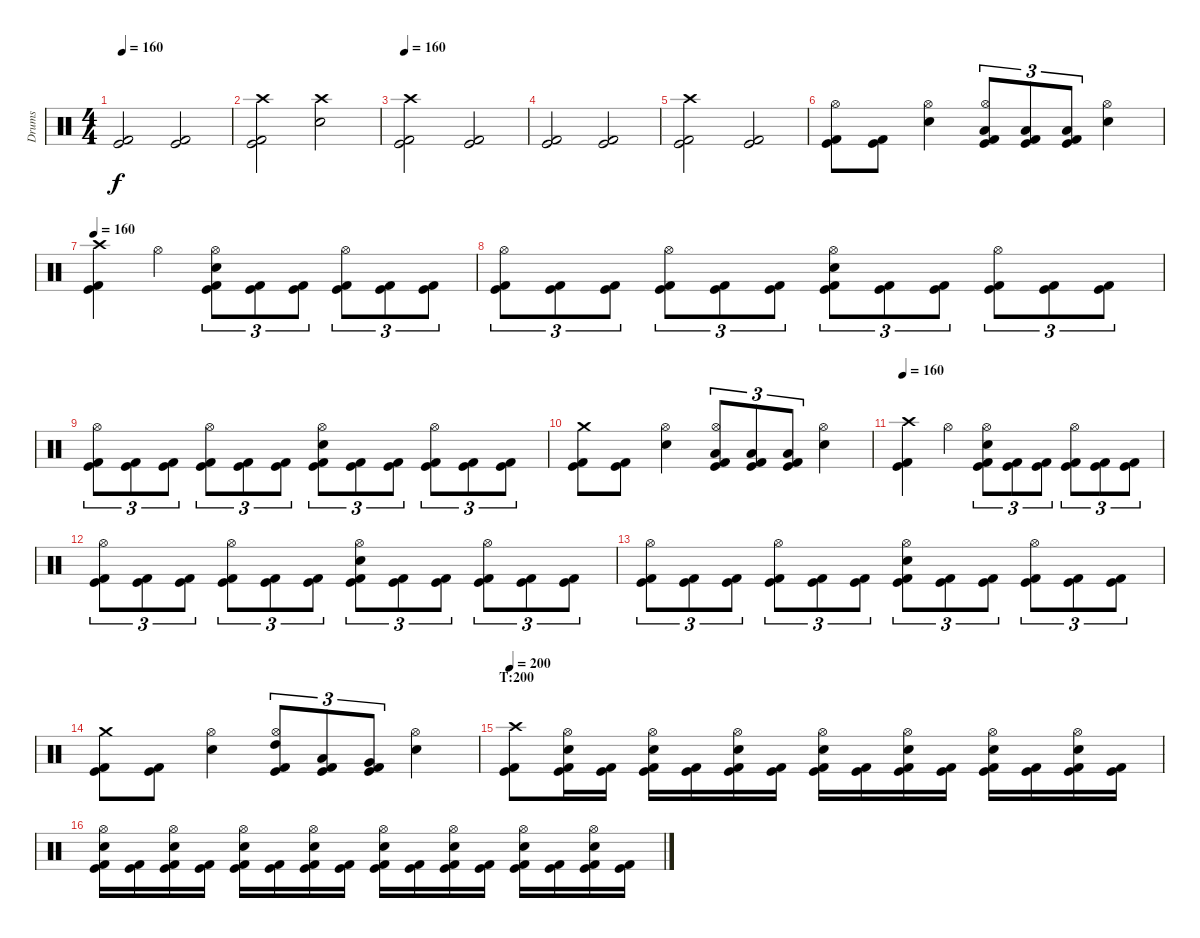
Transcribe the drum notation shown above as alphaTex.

\track ("Drums" "Drums") {instrument percussion}
\staff {score}
\articulation defaults
\ts (4 4)
\tempo 160
\clef neutral
\ks c
("Kick (hit)" "Kick (hit) 2").2{dy f} ("Kick (hit)" "Kick (hit) 2").2 |
("Crash high (hit)" "Kick (hit)" "Kick (hit) 2").2 ("Crash high (hit)" "Electric Snare (hit)").2 |
\tempo 160
("Crash high (hit)" "Kick (hit)" "Kick (hit) 2").2{volume 5} ("Kick (hit)" "Kick (hit) 2").2{volume 16} |
("Kick (hit)" "Kick (hit) 2").2 ("Kick (hit)" "Kick (hit) 2").2 |
("Crash high (hit)" "Kick (hit)" "Kick (hit) 2").2 ("Kick (hit)" "Kick (hit) 2").2 |
("Hi-Hat (open)" "Kick (hit)" "Kick (hit) 2").8 ("Kick (hit)" "Kick (hit) 2").8 ("Hi-Hat (open)" "Electric Snare (hit)").4 ("Hi-Hat (open)" "Low Tom (hit)" "Kick (hit)" "Kick (hit) 2").8{tu (3 2)} ("Low Tom (hit)" "Kick (hit)" "Kick (hit) 2").8{tu (3 2)} ("Low Tom (hit)" "Kick (hit)" "Kick (hit) 2").8{tu (3 2)} ("Hi-Hat (open)" "Electric Snare (hit)").4 |
\tempo 160
("Crash high (hit)" "Kick (hit)" "Kick (hit) 2").4 "Hi-Hat (open)".4 ("Hi-Hat (open)" "Electric Snare (hit)" "Kick (hit)" "Kick (hit) 2").8{tu (3 2)} ("Kick (hit)" "Kick (hit) 2").8{tu (3 2)} ("Kick (hit)" "Kick (hit) 2").8{tu (3 2)} ("Hi-Hat (open)" "Kick (hit)" "Kick (hit) 2").8{tu (3 2)} ("Kick (hit)" "Kick (hit) 2").8{tu (3 2)} ("Kick (hit)" "Kick (hit) 2").8{tu (3 2)} |
("Hi-Hat (open)" "Kick (hit)" "Kick (hit) 2").8{tu (3 2)} ("Kick (hit)" "Kick (hit) 2").8{tu (3 2)} ("Kick (hit)" "Kick (hit) 2").8{tu (3 2)} ("Hi-Hat (open)" "Kick (hit)" "Kick (hit) 2").8{tu (3 2)} ("Kick (hit)" "Kick (hit) 2").8{tu (3 2)} ("Kick (hit)" "Kick (hit) 2").8{tu (3 2)} ("Hi-Hat (open)" "Electric Snare (hit)" "Kick (hit)" "Kick (hit) 2").8{tu (3 2)} ("Kick (hit)" "Kick (hit) 2").8{tu (3 2)} ("Kick (hit)" "Kick (hit) 2").8{tu (3 2)} ("Hi-Hat (open)" "Kick (hit)" "Kick (hit) 2").8{tu (3 2)} ("Kick (hit)" "Kick (hit) 2").8{tu (3 2)} ("Kick (hit)" "Kick (hit) 2").8{tu (3 2)} |
("Hi-Hat (open)" "Kick (hit)" "Kick (hit) 2").8{tu (3 2)} ("Kick (hit)" "Kick (hit) 2").8{tu (3 2)} ("Kick (hit)" "Kick (hit) 2").8{tu (3 2)} ("Hi-Hat (open)" "Kick (hit)" "Kick (hit) 2").8{tu (3 2)} ("Kick (hit)" "Kick (hit) 2").8{tu (3 2)} ("Kick (hit)" "Kick (hit) 2").8{tu (3 2)} ("Hi-Hat (open)" "Electric Snare (hit)" "Kick (hit)" "Kick (hit) 2").8{tu (3 2)} ("Kick (hit)" "Kick (hit) 2").8{tu (3 2)} ("Kick (hit)" "Kick (hit) 2").8{tu (3 2)} ("Hi-Hat (open)" "Kick (hit)" "Kick (hit) 2").8{tu (3 2)} ("Kick (hit)" "Kick (hit) 2").8{tu (3 2)} ("Kick (hit)" "Kick (hit) 2").8{tu (3 2)} |
("Crash medium (hit)" "Kick (hit)" "Kick (hit) 2").8 ("Kick (hit)" "Kick (hit) 2").8 ("Hi-Hat (open)" "Electric Snare (hit)").4 ("Hi-Hat (open)" "Low Tom (hit)" "Kick (hit)" "Kick (hit) 2").8{tu (3 2)} ("Low Tom (hit)" "Kick (hit)" "Kick (hit) 2").8{tu (3 2)} ("Low Tom (hit)" "Kick (hit)" "Kick (hit) 2").8{tu (3 2)} ("Hi-Hat (open)" "Electric Snare (hit)").4 |
\tempo 160
("Crash high (hit)" "Kick (hit)" "Kick (hit) 2").4 "Hi-Hat (open)".4 ("Hi-Hat (open)" "Electric Snare (hit)" "Kick (hit)" "Kick (hit) 2").8{tu (3 2)} ("Kick (hit)" "Kick (hit) 2").8{tu (3 2)} ("Kick (hit)" "Kick (hit) 2").8{tu (3 2)} ("Hi-Hat (open)" "Kick (hit)" "Kick (hit) 2").8{tu (3 2)} ("Kick (hit)" "Kick (hit) 2").8{tu (3 2)} ("Kick (hit)" "Kick (hit) 2").8{tu (3 2)} |
("Hi-Hat (open)" "Kick (hit)" "Kick (hit) 2").8{tu (3 2)} ("Kick (hit)" "Kick (hit) 2").8{tu (3 2)} ("Kick (hit)" "Kick (hit) 2").8{tu (3 2)} ("Hi-Hat (open)" "Kick (hit)" "Kick (hit) 2").8{tu (3 2)} ("Kick (hit)" "Kick (hit) 2").8{tu (3 2)} ("Kick (hit)" "Kick (hit) 2").8{tu (3 2)} ("Hi-Hat (open)" "Electric Snare (hit)" "Kick (hit)" "Kick (hit) 2").8{tu (3 2)} ("Kick (hit)" "Kick (hit) 2").8{tu (3 2)} ("Kick (hit)" "Kick (hit) 2").8{tu (3 2)} ("Hi-Hat (open)" "Kick (hit)" "Kick (hit) 2").8{tu (3 2)} ("Kick (hit)" "Kick (hit) 2").8{tu (3 2)} ("Kick (hit)" "Kick (hit) 2").8{tu (3 2)} |
("Hi-Hat (open)" "Kick (hit)" "Kick (hit) 2").8{tu (3 2)} ("Kick (hit)" "Kick (hit) 2").8{tu (3 2)} ("Kick (hit)" "Kick (hit) 2").8{tu (3 2)} ("Hi-Hat (open)" "Kick (hit)" "Kick (hit) 2").8{tu (3 2)} ("Kick (hit)" "Kick (hit) 2").8{tu (3 2)} ("Kick (hit)" "Kick (hit) 2").8{tu (3 2)} ("Hi-Hat (open)" "Electric Snare (hit)" "Kick (hit)" "Kick (hit) 2").8{tu (3 2)} ("Kick (hit)" "Kick (hit) 2").8{tu (3 2)} ("Kick (hit)" "Kick (hit) 2").8{tu (3 2)} ("Hi-Hat (open)" "Kick (hit)" "Kick (hit) 2").8{tu (3 2)} ("Kick (hit)" "Kick (hit) 2").8{tu (3 2)} ("Kick (hit)" "Kick (hit) 2").8{tu (3 2)} |
("Crash medium (hit)" "Kick (hit)" "Kick (hit) 2").8 ("Kick (hit)" "Kick (hit) 2").8 ("Hi-Hat (open)" "Electric Snare (hit)").4 ("Hi-Hat (open)" "High Tom (hit)" "Kick (hit)" "Kick (hit) 2").8{tu (3 2)} ("Low Tom (hit)" "Kick (hit)" "Kick (hit) 2").8{tu (3 2)} ("Very Low Tom (hit)" "Kick (hit)" "Kick (hit) 2").8{tu (3 2)} ("Hi-Hat (open)" "Electric Snare (hit)").4 |
\section ("" "T:200")
\tempo 200
("Crash high (hit)" "Kick (hit)" "Kick (hit) 2").8 ("Hi-Hat (open)" "Electric Snare (hit)" "Kick (hit)" "Kick (hit) 2").16 ("Kick (hit)" "Kick (hit) 2").16 ("Hi-Hat (open)" "Electric Snare (hit)" "Kick (hit)" "Kick (hit) 2").16 ("Kick (hit)" "Kick (hit) 2").16 ("Hi-Hat (open)" "Electric Snare (hit)" "Kick (hit)" "Kick (hit) 2").16 ("Kick (hit)" "Kick (hit) 2").16 ("Hi-Hat (open)" "Electric Snare (hit)" "Kick (hit)" "Kick (hit) 2").16 ("Kick (hit)" "Kick (hit) 2").16 ("Hi-Hat (open)" "Electric Snare (hit)" "Kick (hit)" "Kick (hit) 2").16 ("Kick (hit)" "Kick (hit) 2").16 ("Hi-Hat (open)" "Electric Snare (hit)" "Kick (hit)" "Kick (hit) 2").16 ("Kick (hit)" "Kick (hit) 2").16 ("Hi-Hat (open)" "Electric Snare (hit)" "Kick (hit)" "Kick (hit) 2").16 ("Kick (hit)" "Kick (hit) 2").16 |
("Hi-Hat (open)" "Electric Snare (hit)" "Kick (hit)" "Kick (hit) 2").16 ("Kick (hit)" "Kick (hit) 2").16 ("Hi-Hat (open)" "Electric Snare (hit)" "Kick (hit)" "Kick (hit) 2").16 ("Kick (hit)" "Kick (hit) 2").16 ("Hi-Hat (open)" "Electric Snare (hit)" "Kick (hit)" "Kick (hit) 2").16 ("Kick (hit)" "Kick (hit) 2").16 ("Hi-Hat (open)" "Electric Snare (hit)" "Kick (hit)" "Kick (hit) 2").16 ("Kick (hit)" "Kick (hit) 2").16 ("Hi-Hat (open)" "Electric Snare (hit)" "Kick (hit)" "Kick (hit) 2").16 ("Kick (hit)" "Kick (hit) 2").16 ("Hi-Hat (open)" "Electric Snare (hit)" "Kick (hit)" "Kick (hit) 2").16 ("Kick (hit)" "Kick (hit) 2").16 ("Hi-Hat (open)" "Electric Snare (hit)" "Kick (hit)" "Kick (hit) 2").16 ("Kick (hit)" "Kick (hit) 2").16 ("Hi-Hat (open)" "Electric Snare (hit)" "Kick (hit)" "Kick (hit) 2").16 ("Kick (hit)" "Kick (hit) 2").16
